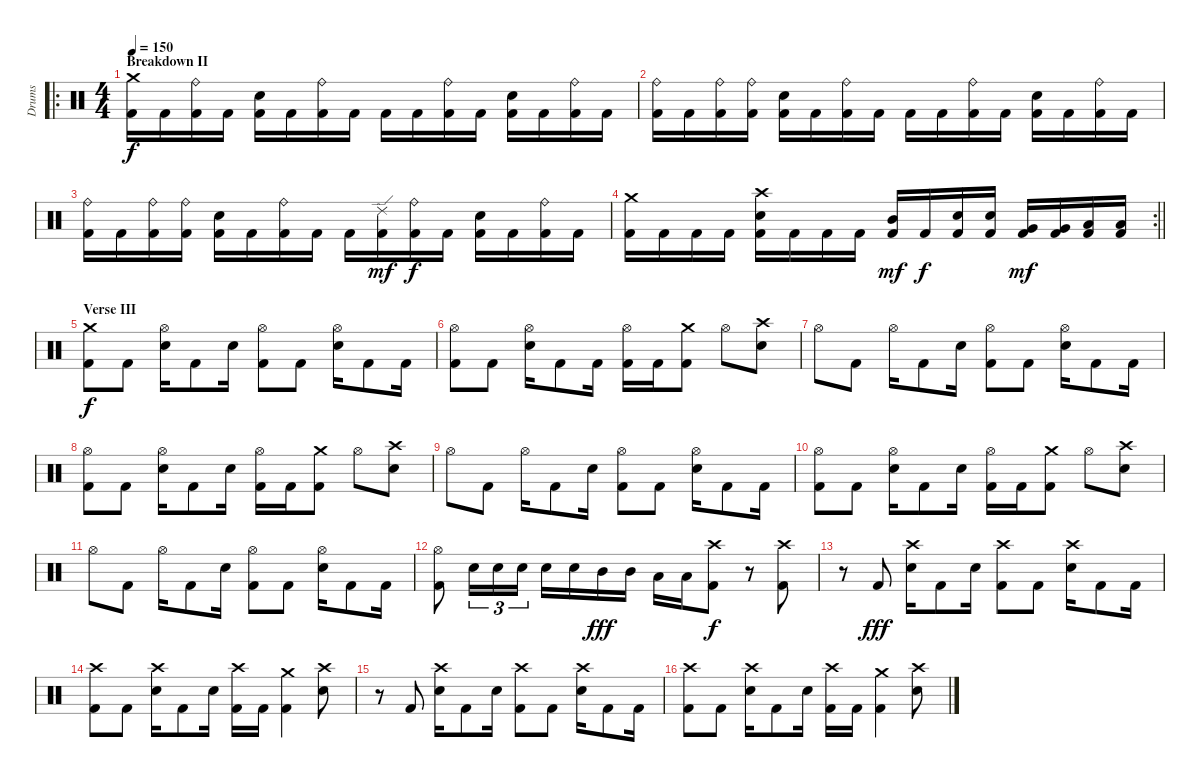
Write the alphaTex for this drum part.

\track ("Drums" "Drums") {instrument percussion}
\staff {score}
\articulation defaults
\ro
\ts (4 4)
\section ("" "Breakdown II")
\tempo 150
\clef neutral
\ks c
("Crash medium (hit)" "Kick (hit) 2").16{dy f} "Kick (hit) 2".16 ("Ride (bell)" "Kick (hit) 2").16 "Kick (hit) 2".16 ("Electric Snare (hit)" "Kick (hit) 2").16 "Kick (hit) 2".16 ("Ride (bell)" "Kick (hit) 2").16 "Kick (hit) 2".16 "Kick (hit) 2".16 "Kick (hit) 2".16 ("Ride (bell)" "Kick (hit) 2").16 "Kick (hit) 2".16 ("Electric Snare (hit)" "Kick (hit) 2").16 "Kick (hit) 2".16 ("Ride (bell)" "Kick (hit) 2").16 "Kick (hit) 2".16 |
("Ride (bell)" "Kick (hit) 2").16 "Kick (hit) 2".16 ("Ride (bell)" "Kick (hit) 2").16 ("Ride (bell)" "Kick (hit) 2").16 ("Electric Snare (hit)" "Kick (hit) 2").16 "Kick (hit) 2".16 ("Ride (bell)" "Kick (hit) 2").16 "Kick (hit) 2".16 "Kick (hit) 2".16 "Kick (hit) 2".16 ("Ride (bell)" "Kick (hit) 2").16 "Kick (hit) 2".16 ("Electric Snare (hit)" "Kick (hit) 2").16 "Kick (hit) 2".16 ("Ride (bell)" "Kick (hit) 2").16 "Kick (hit) 2".16 |
("Ride (bell)" "Kick (hit) 2").16 "Kick (hit) 2".16 ("Ride (bell)" "Kick (hit) 2").16 ("Ride (bell)" "Kick (hit) 2").16 ("Electric Snare (hit)" "Kick (hit) 2").16 "Kick (hit) 2".16 ("Ride (bell)" "Kick (hit) 2").16 "Kick (hit) 2".16 "Kick (hit) 2".16 ("Ride (edge) 2" "Kick (hit) 2").16{dy mf} ("Ride (bell)" "Kick (hit) 2").16{dy f} "Kick (hit) 2".16 ("Electric Snare (hit)" "Kick (hit) 2").16 "Kick (hit) 2".16 ("Ride (bell)" "Kick (hit) 2").16 "Kick (hit) 2".16 |
\rc 2
\barLineRight lightlight
("Crash medium (hit)" "Kick (hit) 2").16 "Kick (hit) 2".16 "Kick (hit) 2".16 "Kick (hit) 2".16 ("Crash high (hit)" "Electric Snare (hit)" "Kick (hit) 2").16 "Kick (hit) 2".16 "Kick (hit) 2".16 "Kick (hit) 2".16 ("Mid Tom (hit)" "Kick (hit) 2").16{dy mf} "Kick (hit) 2".16{dy f} ("Electric Snare (hit)" "Kick (hit) 2").16 ("Electric Snare (hit)" "Kick (hit) 2").16 ("Very Low Tom (hit)" "Kick (hit) 2").16{dy mf} ("Very Low Tom (hit)" "Kick (hit) 2").16 ("Low Floor Tom (hit)" "Kick (hit) 2").16 ("Low Floor Tom (hit)" "Kick (hit) 2").16 |
\section ("" "Verse III")
("Crash medium (hit)" "Kick (hit) 2").8{dy f} "Kick (hit) 2".8 ("Hi-Hat (open)" "Electric Snare (hit)").16 "Kick (hit) 2".8 "Electric Snare (hit)".16 ("Hi-Hat (open)" "Kick (hit) 2").8 "Kick (hit) 2".8 ("Hi-Hat (open)" "Electric Snare (hit)").16 "Kick (hit) 2".8 "Kick (hit) 2".16 |
("Hi-Hat (open)" "Kick (hit) 2").8 "Kick (hit) 2".8 ("Hi-Hat (open)" "Electric Snare (hit)").16 "Kick (hit) 2".8 "Kick (hit) 2".16 ("Hi-Hat (open)" "Kick (hit) 2").16 "Kick (hit) 2".16 ("Crash medium (hit)" "Kick (hit) 2").8 "Hi-Hat (open)".8 ("Crash high (hit)" "Electric Snare (hit)").8 |
"Hi-Hat (open)".8 "Kick (hit) 2".8 "Hi-Hat (open)".16 "Kick (hit) 2".8 "Electric Snare (hit)".16 ("Hi-Hat (open)" "Kick (hit) 2").8 "Kick (hit) 2".8 ("Hi-Hat (open)" "Electric Snare (hit)").16 "Kick (hit) 2".8 "Kick (hit) 2".16 |
("Hi-Hat (open)" "Kick (hit) 2").8 "Kick (hit) 2".8 ("Hi-Hat (open)" "Electric Snare (hit)").16 "Kick (hit) 2".8 "Electric Snare (hit)".16 ("Hi-Hat (open)" "Kick (hit) 2").16 "Kick (hit) 2".16 ("Crash medium (hit)" "Kick (hit) 2").8 "Hi-Hat (open)".8 ("Crash high (hit)" "Electric Snare (hit)").8 |
"Hi-Hat (open)".8 "Kick (hit) 2".8 "Hi-Hat (open)".16 "Kick (hit) 2".8 "Electric Snare (hit)".16 ("Hi-Hat (open)" "Kick (hit) 2").8 "Kick (hit) 2".8 ("Hi-Hat (open)" "Electric Snare (hit)").16 "Kick (hit) 2".8 "Kick (hit) 2".16 |
("Hi-Hat (open)" "Kick (hit) 2").8 "Kick (hit) 2".8 ("Hi-Hat (open)" "Electric Snare (hit)").16 "Kick (hit) 2".8 "Electric Snare (hit)".16 ("Hi-Hat (open)" "Kick (hit) 2").16 "Kick (hit) 2".16 ("Crash medium (hit)" "Kick (hit) 2").8 "Hi-Hat (open)".8 ("Crash high (hit)" "Electric Snare (hit)").8 |
"Hi-Hat (open)".8 "Kick (hit) 2".8 "Hi-Hat (open)".16 "Kick (hit) 2".8 "Electric Snare (hit)".16 ("Hi-Hat (open)" "Kick (hit) 2").8 "Kick (hit) 2".8 ("Hi-Hat (open)" "Electric Snare (hit)").16 "Kick (hit) 2".8 "Kick (hit) 2".16 |
("Hi-Hat (open)" "Kick (hit) 2").8 "Electric Snare (hit)".16{tu (3 2)} "Electric Snare (hit)".16{tu (3 2)} "Electric Snare (hit)".16{tu (3 2)} "Electric Snare (hit)".16 "Electric Snare (hit)".16 "Mid Tom (hit)".16{dy fff} "Mid Tom (hit)".16 "Low Tom (hit)".16 "Low Tom (hit)".16 ("Crash high (hit)" "Kick (hit) 2").8{dy f} r.8 ("Crash high (hit)" "Kick (hit) 2").8 |
r.8 "Kick (hit) 2".8{dy fff} ("Crash high (hit)" "Electric Snare (hit)").16 "Kick (hit) 2".8 "Electric Snare (hit)".16 ("Crash high (hit)" "Kick (hit) 2").8 "Kick (hit) 2".8 ("Crash high (hit)" "Electric Snare (hit)").16 "Kick (hit) 2".8 "Kick (hit) 2".16 |
("Crash high (hit)" "Kick (hit) 2").8 "Kick (hit) 2".8 ("Crash high (hit)" "Electric Snare (hit)").16 "Kick (hit) 2".8 "Electric Snare (hit)".16 ("Crash high (hit)" "Kick (hit) 2").16 "Kick (hit) 2".16 ("Crash medium (hit)" "Kick (hit) 2").4 ("Crash high (hit)" "Electric Snare (hit)").8 |
r.8 "Kick (hit) 2".8 ("Crash high (hit)" "Electric Snare (hit)").16 "Kick (hit) 2".8 "Electric Snare (hit)".16 ("Crash high (hit)" "Kick (hit) 2").8 "Kick (hit) 2".8 ("Crash high (hit)" "Electric Snare (hit)").16 "Kick (hit) 2".8 "Kick (hit) 2".16 |
("Crash high (hit)" "Kick (hit) 2").8 "Kick (hit) 2".8 ("Crash high (hit)" "Electric Snare (hit)").16 "Kick (hit) 2".8 "Electric Snare (hit)".16 ("Crash high (hit)" "Kick (hit) 2").16 "Kick (hit) 2".16 ("Crash medium (hit)" "Kick (hit) 2").4 ("Crash high (hit)" "Electric Snare (hit)").8
